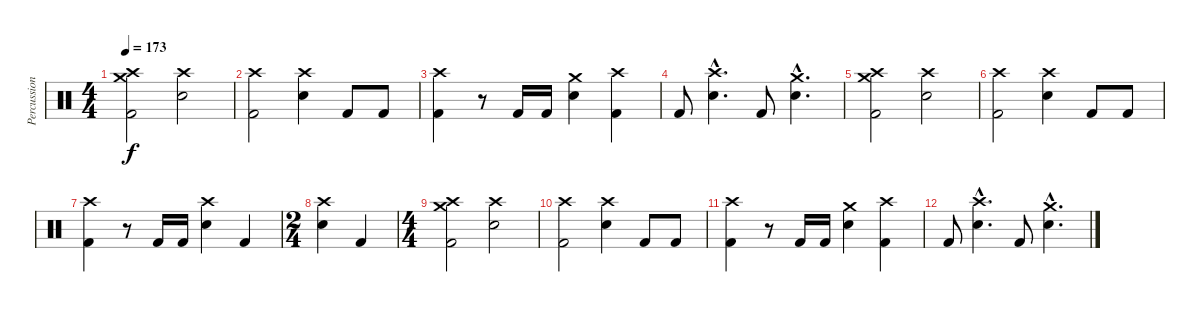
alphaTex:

\track ("Percussions" "Percussion") {instrument percussion}
\staff {score}
\articulation defaults
\ts (4 4)
\tempo 173
\clef neutral
\ks c
("Crash medium (hit)" "Crash high (hit)" "Kick (hit) 2").2{dy f} ("Crash high (hit)" "Electric Snare (hit)").2 |
("Crash high (hit)" "Kick (hit) 2").2 ("Crash high (hit)" "Electric Snare (hit)").4 "Kick (hit) 2".8 "Kick (hit) 2".8 |
("Crash high (hit)" "Kick (hit) 2").4 r.8 "Kick (hit) 2".16 "Kick (hit) 2".16 ("Crash medium (hit)" "Electric Snare (hit)").4 ("Crash high (hit)" "Kick (hit) 2").4 |
"Kick (hit) 2".8 ("Crash high (hit)"{hac} "Electric Snare (hit)"{hac}).4{d} "Kick (hit) 2".8 ("Crash medium (hit)"{hac} "Electric Snare (hit)"{hac}).4{d} |
("Crash medium (hit)" "Crash high (hit)" "Kick (hit) 2").2{volume 8} ("Crash high (hit)" "Electric Snare (hit)").2 |
("Crash high (hit)" "Kick (hit) 2").2 ("Crash high (hit)" "Electric Snare (hit)").4 "Kick (hit) 2".8 "Kick (hit) 2".8 |
("Crash high (hit)" "Kick (hit) 2").4 r.8 "Kick (hit) 2".16 "Kick (hit) 2".16 ("Crash high (hit)" "Electric Snare (hit)").4 "Kick (hit) 2".4 |
\ts (2 4)
("Crash high (hit)" "Electric Snare (hit)").4 "Kick (hit) 2".4 |
\ts (4 4)
("Crash medium (hit)" "Crash high (hit)" "Kick (hit) 2").2{volume 0} ("Crash high (hit)" "Electric Snare (hit)").2 |
("Crash high (hit)" "Kick (hit) 2").2 ("Crash high (hit)" "Electric Snare (hit)").4 "Kick (hit) 2".8 "Kick (hit) 2".8 |
("Crash high (hit)" "Kick (hit) 2").4 r.8 "Kick (hit) 2".16 "Kick (hit) 2".16 ("Crash medium (hit)" "Electric Snare (hit)").4 ("Crash high (hit)" "Kick (hit) 2").4 |
"Kick (hit) 2".8 ("Crash high (hit)"{hac} "Electric Snare (hit)"{hac}).4{d} "Kick (hit) 2".8 ("Crash medium (hit)"{hac} "Electric Snare (hit)"{hac}).4{d}
